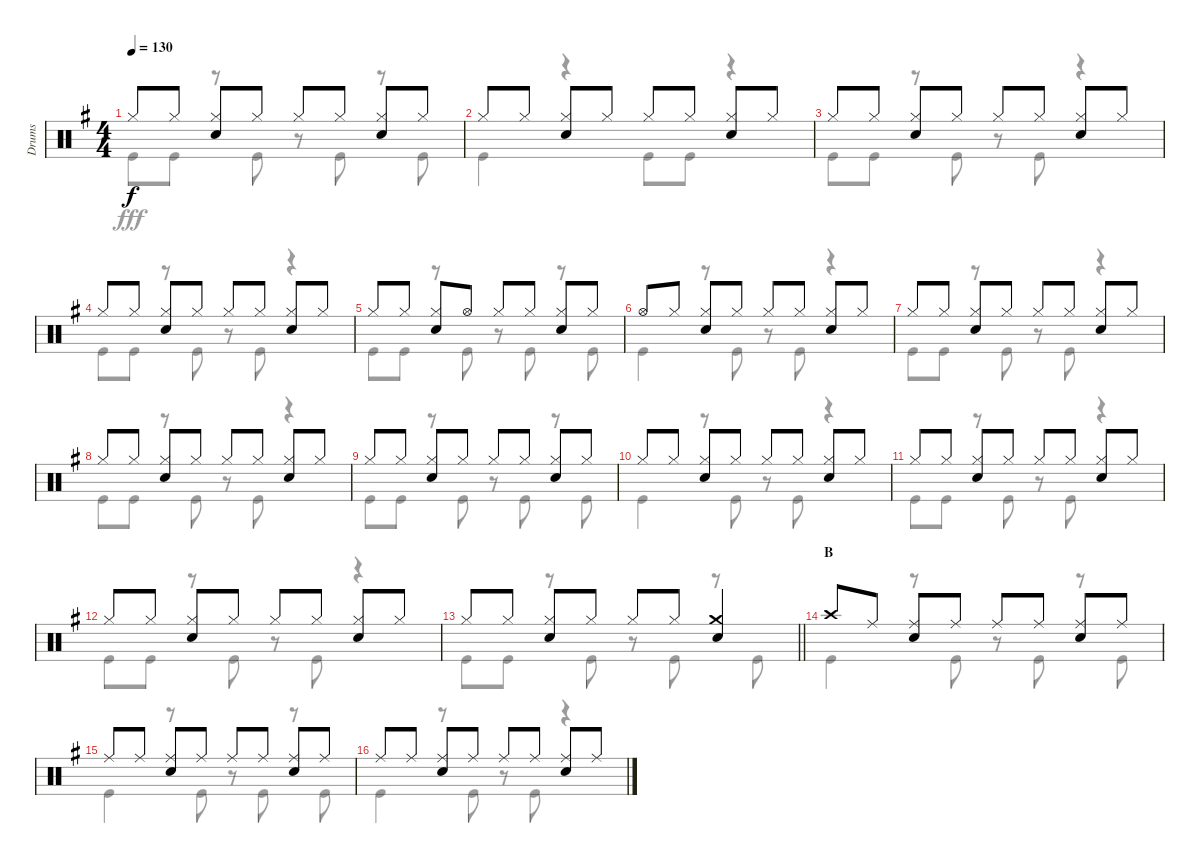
\track ("Drums" "Drums") {instrument percussion}
\staff {score}
\articulation defaults
\voice
\ts (4 4)
\tempo 130
\clef neutral
\ks g "Hi-Hat (closed)".8{dy f} "Hi-Hat (closed)".8
("Hi-Hat (closed)" "Snare (hit) 2").8 "Hi-Hat (closed)".8 "Hi-Hat (closed)".8 "Hi-Hat (closed)".8 ("Hi-Hat (closed)" "Snare (hit) 2").8 "Hi-Hat (closed)".8 |
"Hi-Hat (closed)".8 "Hi-Hat (closed)".8 ("Hi-Hat (closed)" "Snare (hit) 2").8 "Hi-Hat (closed)".8 "Hi-Hat (closed)".8 "Hi-Hat (closed)".8 ("Hi-Hat (closed)" "Snare (hit) 2").8 "Hi-Hat (closed)".8 |
"Hi-Hat (closed)".8 "Hi-Hat (closed)".8 ("Hi-Hat (closed)" "Snare (hit) 2").8 "Hi-Hat (closed)".8 "Hi-Hat (closed)".8 "Hi-Hat (closed)".8 ("Hi-Hat (closed)" "Snare (hit) 2").8 "Hi-Hat (closed)".8 |
"Hi-Hat (closed)".8 "Hi-Hat (closed)".8 ("Hi-Hat (closed)" "Snare (hit) 2").8 "Hi-Hat (closed)".8 "Hi-Hat (closed)".8 "Hi-Hat (closed)".8 ("Hi-Hat (closed)" "Snare (hit) 2").8 "Hi-Hat (closed)".8 |
"Hi-Hat (closed)".8 "Hi-Hat (closed)".8 ("Hi-Hat (closed)" "Snare (hit) 2").8 "Hi-Hat (open)".8 "Hi-Hat (closed)".8 "Hi-Hat (closed)".8 ("Hi-Hat (closed)" "Snare (hit) 2").8 "Hi-Hat (closed)".8 |
"Hi-Hat (open)".8 "Hi-Hat (closed)".8 ("Hi-Hat (closed)" "Snare (hit) 2").8 "Hi-Hat (closed)".8 "Hi-Hat (closed)".8 "Hi-Hat (closed)".8 ("Hi-Hat (closed)" "Snare (hit) 2").8 "Hi-Hat (closed)".8 |
"Hi-Hat (closed)".8 "Hi-Hat (closed)".8 ("Hi-Hat (closed)" "Snare (hit) 2").8 "Hi-Hat (closed)".8 "Hi-Hat (closed)".8 "Hi-Hat (closed)".8 ("Hi-Hat (closed)" "Snare (hit) 2").8 "Hi-Hat (closed)".8 |
"Hi-Hat (closed)".8 "Hi-Hat (closed)".8 ("Hi-Hat (closed)" "Snare (hit) 2").8 "Hi-Hat (closed)".8 "Hi-Hat (closed)".8 "Hi-Hat (closed)".8 ("Hi-Hat (closed)" "Snare (hit) 2").8 "Hi-Hat (closed)".8 |
"Hi-Hat (closed)".8 "Hi-Hat (closed)".8 ("Hi-Hat (closed)" "Snare (hit) 2").8 "Hi-Hat (closed)".8 "Hi-Hat (closed)".8 "Hi-Hat (closed)".8 ("Hi-Hat (closed)" "Snare (hit) 2").8 "Hi-Hat (closed)".8 |
"Hi-Hat (closed)".8 "Hi-Hat (closed)".8 ("Hi-Hat (closed)" "Snare (hit) 2").8 "Hi-Hat (closed)".8 "Hi-Hat (closed)".8 "Hi-Hat (closed)".8 ("Hi-Hat (closed)" "Snare (hit) 2").8 "Hi-Hat (closed)".8 |
"Hi-Hat (closed)".8 "Hi-Hat (closed)".8 ("Hi-Hat (closed)" "Snare (hit) 2").8 "Hi-Hat (closed)".8 "Hi-Hat (closed)".8 "Hi-Hat (closed)".8 ("Hi-Hat (closed)" "Snare (hit) 2").8 "Hi-Hat (closed)".8 |
"Hi-Hat (closed)".8 "Hi-Hat (closed)".8 ("Hi-Hat (closed)" "Snare (hit) 2").8 "Hi-Hat (closed)".8 "Hi-Hat (closed)".8 "Hi-Hat (closed)".8 ("Hi-Hat (closed)" "Snare (hit) 2").8 "Hi-Hat (closed)".8 |
\barLineRight lightlight "Hi-Hat (closed)".8 "Hi-Hat (closed)".8
("Hi-Hat (closed)" "Snare (hit) 2").8 "Hi-Hat (closed)".8 "Hi-Hat (closed)".8 "Hi-Hat (closed)".8 ("Crash medium (hit)" "Snare (hit) 2").4 |
\section ("" "B")
"Crash high (hit)".8 "Ride (middle)".8 ("Ride (middle)" "Snare (hit) 2").8 "Ride (middle)".8 "Ride (middle)".8 "Ride (middle)".8 ("Ride (middle)" "Snare (hit) 2").8 "Ride (middle)".8 |
"Ride (middle)".8 "Ride (middle)".8 ("Ride (middle)" "Snare (hit) 2").8 "Ride (middle)".8 "Ride (middle)".8 "Ride (middle)".8 ("Ride (middle)" "Snare (hit) 2").8 "Ride (middle)".8 |
"Ride (middle)".8 "Ride (middle)".8 ("Ride (middle)" "Snare (hit) 2").8 "Ride (middle)".8 "Ride (middle)".8 "Ride (middle)".8 ("Ride (middle)" "Snare (hit) 2").8 "Ride (middle)".8
\voice
\clef neutral
\ottava regular
\simile none
\ks g "Kick (hit)".8{dy fff} "Kick (hit)".8
r.8 "Kick (hit)".8 r.8 "Kick (hit)".8 r.8 "Kick (hit)".8 |
"Kick (hit)".4 r.4 "Kick (hit)".8 "Kick (hit)".8 r.4 |
"Kick (hit)".8 "Kick (hit)".8 r.8 "Kick (hit)".8 r.8 "Kick (hit)".8 r.4 |
"Kick (hit)".8 "Kick (hit)".8 r.8 "Kick (hit)".8 r.8 "Kick (hit)".8 r.4 |
"Kick (hit)".8 "Kick (hit)".8 r.8 "Kick (hit)".8 r.8 "Kick (hit)".8 r.8 "Kick (hit)".8 |
"Kick (hit)".4 r.8 "Kick (hit)".8 r.8 "Kick (hit)".8 r.4 |
"Kick (hit)".8 "Kick (hit)".8 r.8 "Kick (hit)".8 r.8 "Kick (hit)".8 r.4 |
"Kick (hit)".8 "Kick (hit)".8 r.8 "Kick (hit)".8 r.8 "Kick (hit)".8 r.4 |
"Kick (hit)".8 "Kick (hit)".8 r.8 "Kick (hit)".8 r.8 "Kick (hit)".8 r.8 "Kick (hit)".8 |
"Kick (hit)".4 r.8 "Kick (hit)".8 r.8 "Kick (hit)".8 r.4 |
"Kick (hit)".8 "Kick (hit)".8 r.8 "Kick (hit)".8 r.8 "Kick (hit)".8 r.4 |
"Kick (hit)".8 "Kick (hit)".8 r.8 "Kick (hit)".8 r.8 "Kick (hit)".8 r.4 |
\barLineRight lightlight "Kick (hit)".8 "Kick (hit)".8
r.8 "Kick (hit)".8 r.8 "Kick (hit)".8 r.8 "Kick (hit)".8 |
"Kick (hit)".4 r.8 "Kick (hit)".8 r.8 "Kick (hit)".8 r.8 "Kick (hit)".8 |
"Kick (hit)".4 r.8 "Kick (hit)".8 r.8 "Kick (hit)".8 r.8 "Kick (hit)".8 |
"Kick (hit)".4 r.8 "Kick (hit)".8 r.8 "Kick (hit)".8 r.4
